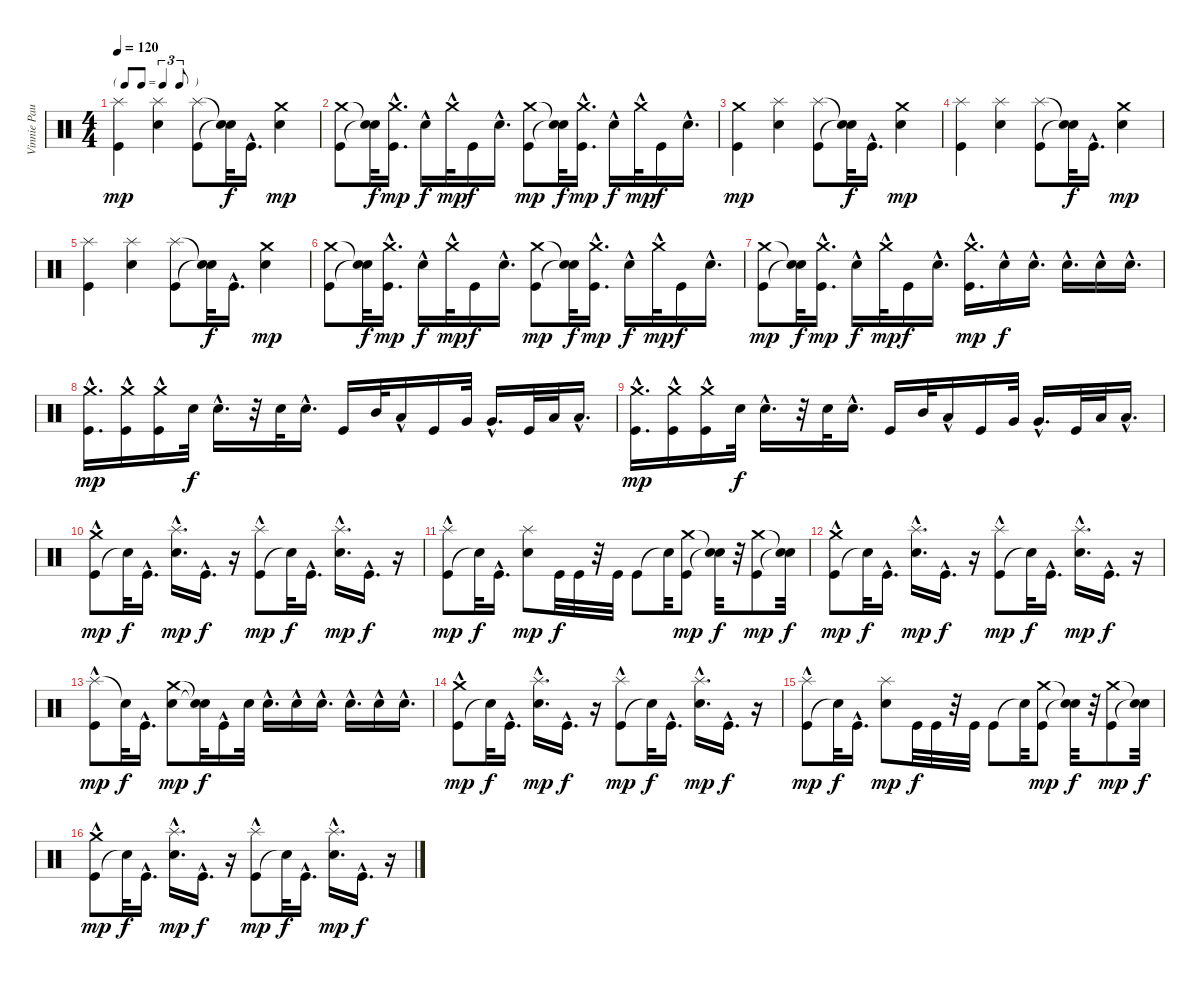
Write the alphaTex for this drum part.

\track ("Vinnie Paul (Drums)" "Vinnie Pau") {instrument percussion}
\staff {score}
\articulation defaults
\ts (4 4)
\tf triplet8th
\tempo 120
\clef neutral
\ks c
("Kick (hit)" "Splash (hit)").4{dy mp} ("Electric Snare (hit)" "Splash (hit)").4 ("Kick (hit)" "Splash (hit)").8 ("Snare (hit)"{t} "Snare (hit)"{t}).32{dy f} "Kick (hit)"{hac}.16{d} ("Electric Snare (hit)" "Crash medium (hit)").4{dy mp} |
("Crash medium (hit)" "Kick (hit)").8 ("Snare (hit)"{t} "Snare (hit)"{t}).32{dy f} ("Crash medium (hit)"{hac} "Kick (hit)").16{d dy mp} "Electric Snare (hit)"{hac}.16{dy f} "Crash medium (hit)"{hac}.32{dy mp} "Kick (hit)".16{dy f} "Electric Snare (hit)"{hac}.16{d} ("Crash medium (hit)" "Kick (hit)").8{dy mp} ("Snare (hit)"{t} "Snare (hit)"{t}).32{dy f} ("Crash medium (hit)"{hac} "Kick (hit)").16{d dy mp} "Electric Snare (hit)"{hac}.16{dy f} "Crash medium (hit)"{hac}.32{dy mp} "Kick (hit)".16{dy f} "Electric Snare (hit)"{hac}.16{d} |
("Kick (hit)" "Crash medium (hit)").4{dy mp} ("Electric Snare (hit)" "Splash (hit)").4 ("Kick (hit)" "Splash (hit)").8 ("Snare (hit)"{t} "Snare (hit)"{t}).32{dy f} "Kick (hit)"{hac}.16{d} ("Electric Snare (hit)" "Crash medium (hit)").4{dy mp} |
("Kick (hit)" "Splash (hit)").4 ("Electric Snare (hit)" "Splash (hit)").4 ("Kick (hit)" "Splash (hit)").8 ("Snare (hit)"{t} "Snare (hit)"{t}).32{dy f} "Kick (hit)"{hac}.16{d} ("Electric Snare (hit)" "Crash medium (hit)").4{dy mp} |
("Kick (hit)" "Splash (hit)").4 ("Electric Snare (hit)" "Splash (hit)").4 ("Kick (hit)" "Splash (hit)").8 ("Snare (hit)"{t} "Snare (hit)"{t}).32{dy f} "Kick (hit)"{hac}.16{d} ("Electric Snare (hit)" "Crash medium (hit)").4{dy mp} |
("Crash medium (hit)" "Kick (hit)").8 ("Snare (hit)"{t} "Snare (hit)"{t}).32{dy f} ("Crash medium (hit)"{hac} "Kick (hit)").16{d dy mp} "Electric Snare (hit)"{hac}.16{dy f} "Crash medium (hit)"{hac}.32{dy mp} "Kick (hit)".16{dy f} "Electric Snare (hit)"{hac}.16{d} ("Crash medium (hit)" "Kick (hit)").8{dy mp} ("Snare (hit)"{t} "Snare (hit)"{t}).32{dy f} ("Crash medium (hit)"{hac} "Kick (hit)").16{d dy mp} "Electric Snare (hit)"{hac}.16{dy f} "Crash medium (hit)"{hac}.32{dy mp} "Kick (hit)".16{dy f} "Electric Snare (hit)"{hac}.16{d} |
("Crash medium (hit)" "Kick (hit)").8{dy mp} ("Snare (hit)"{t} "Snare (hit)"{t}).32{dy f} ("Crash medium (hit)"{hac} "Kick (hit)").16{d dy mp} "Electric Snare (hit)"{hac}.16{dy f} "Crash medium (hit)"{hac}.32{dy mp} "Kick (hit)".16{dy f} "Electric Snare (hit)"{hac}.16{d} ("Kick (hit)" "Crash medium (hit)"{hac}).16{d dy mp} "Electric Snare (hit)"{hac}.16{dy f} "Electric Snare (hit)"{hac}.16{d} "Electric Snare (hit)"{hac}.16{d} "Electric Snare (hit)"{hac}.16 "Electric Snare (hit)"{hac}.16{d} |
("Kick (hit)"{hac} "Crash medium (hit)"{hac}).16{d dy mp} ("Kick (hit)"{hac} "Crash medium (hit)"{hac}).16 ("Kick (hit)"{hac} "Crash medium (hit)"{hac}).16 "Snare (hit) 2".32{dy f} "Electric Snare (hit)"{hac}.16{d} r.32 "Snare (hit) 2".32 "Electric Snare (hit)"{hac}.16{d} "Kick (hit)".16 "Mid Tom (hit)".32 "Low Tom (hit)"{hac}.16 "Kick (hit)".16 "Very Low Tom (hit)".32 "Very Low Tom (hit)"{hac}.16{d} "Kick (hit)".32 "Low Floor Tom (hit)".32 "Low Floor Tom (hit)"{hac}.16{d} |
("Kick (hit)"{hac} "Crash medium (hit)"{hac}).16{d dy mp} ("Kick (hit)"{hac} "Crash medium (hit)"{hac}).16 ("Kick (hit)"{hac} "Crash medium (hit)"{hac}).16 "Snare (hit) 2".32{dy f} "Electric Snare (hit)"{hac}.16{d} r.32 "Snare (hit) 2".32 "Electric Snare (hit)"{hac}.16{d} "Kick (hit)".16 "Mid Tom (hit)".32 "Low Tom (hit)"{hac}.16 "Kick (hit)".16 "Very Low Tom (hit)".32 "Very Low Tom (hit)"{hac}.16{d} "Kick (hit)".32 "Low Floor Tom (hit)".32 "Low Floor Tom (hit)"{hac}.16{d} |
("Kick (hit)"{hac} "Crash medium (hit)").8{dy mp} "Snare (hit)"{t}.32{dy f} "Kick (hit)"{hac}.16{d} ("Electric Snare (hit)"{hac} "Splash (hit)").16{d dy mp} "Kick (hit)"{hac}.16{d dy f} r.16 ("Kick (hit)"{hac} "Splash (hit)").8{dy mp} "Snare (hit)"{t}.32{dy f} "Kick (hit)"{hac}.16{d} ("Electric Snare (hit)"{hac} "Splash (hit)").16{d dy mp} "Kick (hit)"{hac}.16{d dy f} r.16 |
("Kick (hit)"{hac} "Splash (hit)").8{dy mp} "Snare (hit)"{t}.32{dy f} "Kick (hit)"{hac}.16{d} ("Electric Snare (hit)" "Splash (hit)").8{dy mp} "Kick (hit)".32{dy f} "Kick (hit)".32 r.32 "Kick (hit)".32 "Kick (hit)".8 "Snare (hit)"{t}.32 ("Kick (hit)" "Crash medium (hit)").8{dy mp} ("Snare (hit)"{t} "Snare (hit)"{t}).32{dy f} r.32 ("Crash medium (hit)" "Kick (hit)").8{dy mp} ("Snare (hit)"{t} "Snare (hit)"{t}).32{dy f} |
("Kick (hit)"{hac} "Crash medium (hit)").8{dy mp} "Snare (hit)"{t}.32{dy f} "Kick (hit)"{hac}.16{d} ("Electric Snare (hit)"{hac} "Splash (hit)").16{d dy mp} "Kick (hit)"{hac}.16{d dy f} r.16 ("Kick (hit)"{hac} "Splash (hit)").8{dy mp} "Snare (hit)"{t}.32{dy f} "Kick (hit)"{hac}.16{d} ("Electric Snare (hit)"{hac} "Splash (hit)").16{d dy mp} "Kick (hit)"{hac}.16{d dy f} r.16 |
("Splash (hit)" "Kick (hit)"{hac}).8{dy mp} "Snare (hit)"{t}.32{dy f} "Kick (hit)"{hac}.16{d} ("Electric Snare (hit)" "Crash medium (hit)").8{dy mp} ("Snare (hit)"{t} "Snare (hit)"{t}).32{dy f} "Kick (hit)"{hac}.16 "Electric Snare (hit)".32 "Electric Snare (hit)"{hac}.16{d} "Electric Snare (hit)"{hac}.16 "Electric Snare (hit)"{hac}.16{d} "Electric Snare (hit)"{hac}.16{d} "Electric Snare (hit)"{hac}.16 "Electric Snare (hit)"{hac}.16{d} |
("Kick (hit)"{hac} "Crash medium (hit)").8{dy mp} "Snare (hit)"{t}.32{dy f} "Kick (hit)"{hac}.16{d} ("Electric Snare (hit)"{hac} "Splash (hit)").16{d dy mp} "Kick (hit)"{hac}.16{d dy f} r.16 ("Kick (hit)"{hac} "Splash (hit)").8{dy mp} "Snare (hit)"{t}.32{dy f} "Kick (hit)"{hac}.16{d} ("Electric Snare (hit)"{hac} "Splash (hit)").16{d dy mp} "Kick (hit)"{hac}.16{d dy f} r.16 |
("Kick (hit)"{hac} "Splash (hit)").8{dy mp} "Snare (hit)"{t}.32{dy f} "Kick (hit)"{hac}.16{d} ("Electric Snare (hit)" "Splash (hit)").8{dy mp} "Kick (hit)".32{dy f} "Kick (hit)".32 r.32 "Kick (hit)".32 "Kick (hit)".8 "Snare (hit)"{t}.32 ("Kick (hit)" "Crash medium (hit)").8{dy mp} ("Snare (hit)"{t} "Snare (hit)"{t}).32{dy f} r.32 ("Crash medium (hit)" "Kick (hit)").8{dy mp} ("Snare (hit)"{t} "Snare (hit)"{t}).32{dy f} |
("Kick (hit)"{hac} "Crash medium (hit)").8{dy mp} "Snare (hit)"{t}.32{dy f} "Kick (hit)"{hac}.16{d} ("Electric Snare (hit)"{hac} "Splash (hit)").16{d dy mp} "Kick (hit)"{hac}.16{d dy f} r.16 ("Kick (hit)"{hac} "Splash (hit)").8{dy mp} "Snare (hit)"{t}.32{dy f} "Kick (hit)"{hac}.16{d} ("Electric Snare (hit)"{hac} "Splash (hit)").16{d dy mp} "Kick (hit)"{hac}.16{d dy f} r.16
